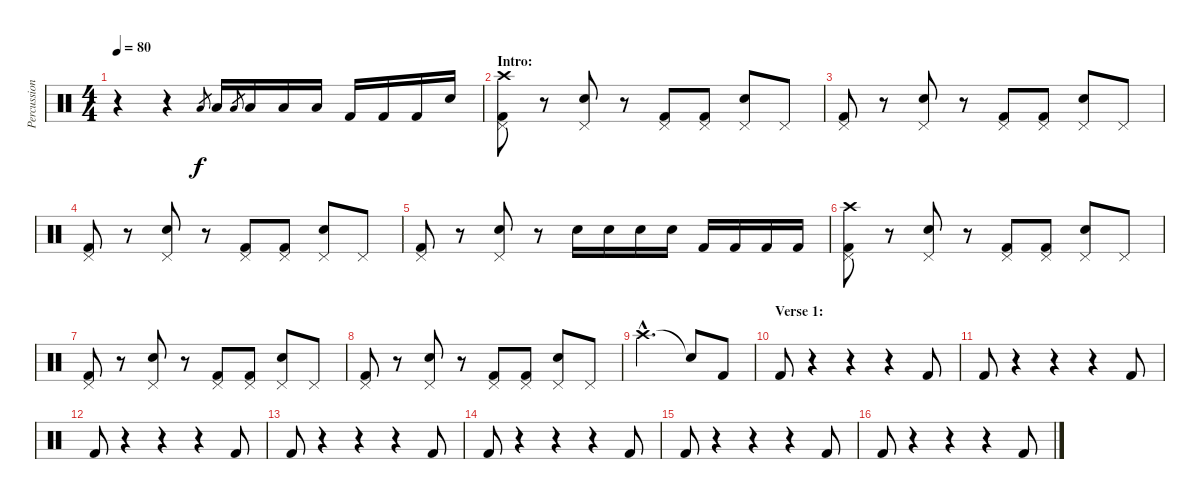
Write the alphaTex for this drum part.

\track ("Percussion" "Percussion") {instrument percussion}
\staff {score}
\articulation defaults
\ts (4 4)
\tempo 80
\clef neutral
\ks c
r.4{dy f} r.4 "Low Tom (hit)".8{gr} "Low Tom (hit)".16 "Low Tom (hit)".8{gr} "Low Tom (hit)".16 "Low Tom (hit)".16 "Low Tom (hit)".16 "Kick (hit) 2".16 "Kick (hit) 2".16 "Kick (hit) 2".16 "Snare (hit) 2".16 |
\section ("" "Intro:")
("Pedal Hi-Hat (hit)" "Crash high (hit)" "Kick (hit) 2").8 r.8 ("Pedal Hi-Hat (hit)" "Snare (hit) 2").8 r.8 ("Pedal Hi-Hat (hit)" "Kick (hit) 2").8 ("Pedal Hi-Hat (hit)" "Kick (hit) 2").8 ("Pedal Hi-Hat (hit)" "Snare (hit) 2").8 "Pedal Hi-Hat (hit)".8 |
("Pedal Hi-Hat (hit)" "Kick (hit) 2").8 r.8 ("Pedal Hi-Hat (hit)" "Snare (hit) 2").8 r.8 ("Pedal Hi-Hat (hit)" "Kick (hit) 2").8 ("Pedal Hi-Hat (hit)" "Kick (hit) 2").8 ("Pedal Hi-Hat (hit)" "Snare (hit) 2").8 "Pedal Hi-Hat (hit)".8 |
("Pedal Hi-Hat (hit)" "Kick (hit) 2").8 r.8 ("Pedal Hi-Hat (hit)" "Snare (hit) 2").8 r.8 ("Pedal Hi-Hat (hit)" "Kick (hit) 2").8 ("Pedal Hi-Hat (hit)" "Kick (hit) 2").8 ("Pedal Hi-Hat (hit)" "Snare (hit) 2").8 "Pedal Hi-Hat (hit)".8 |
("Pedal Hi-Hat (hit)" "Kick (hit) 2").8 r.8 ("Pedal Hi-Hat (hit)" "Snare (hit) 2").8 r.8 "Snare (hit) 2".16 "Snare (hit) 2".16 "Snare (hit) 2".16 "Snare (hit) 2".16 "Kick (hit) 2".16 "Kick (hit) 2".16 "Kick (hit) 2".16 "Kick (hit) 2".16 |
("Pedal Hi-Hat (hit)" "Crash high (hit)" "Kick (hit) 2").8 r.8 ("Pedal Hi-Hat (hit)" "Snare (hit) 2").8 r.8 ("Pedal Hi-Hat (hit)" "Kick (hit) 2").8 ("Pedal Hi-Hat (hit)" "Kick (hit) 2").8 ("Pedal Hi-Hat (hit)" "Snare (hit) 2").8 "Pedal Hi-Hat (hit)".8 |
("Pedal Hi-Hat (hit)" "Kick (hit) 2").8 r.8 ("Pedal Hi-Hat (hit)" "Snare (hit) 2").8 r.8 ("Pedal Hi-Hat (hit)" "Kick (hit) 2").8 ("Pedal Hi-Hat (hit)" "Kick (hit) 2").8 ("Pedal Hi-Hat (hit)" "Snare (hit) 2").8 "Pedal Hi-Hat (hit)".8 |
("Pedal Hi-Hat (hit)" "Kick (hit) 2").8 r.8 ("Pedal Hi-Hat (hit)" "Snare (hit) 2").8 r.8 ("Pedal Hi-Hat (hit)" "Kick (hit) 2").8 ("Pedal Hi-Hat (hit)" "Kick (hit) 2").8 ("Pedal Hi-Hat (hit)" "Snare (hit) 2").8 "Pedal Hi-Hat (hit)".8 |
"Crash high (hit)"{hac}.2{d} "Snare (hit)"{t}.8 "Kick (hit) 2".8 |
\section ("" "Verse 1:")
"Kick (hit) 2".8 r.4 r.4 r.4 "Kick (hit) 2".8 |
"Kick (hit) 2".8 r.4 r.4 r.4 "Kick (hit) 2".8 |
"Kick (hit) 2".8 r.4 r.4 r.4 "Kick (hit) 2".8 |
"Kick (hit) 2".8 r.4 r.4 r.4 "Kick (hit) 2".8 |
"Kick (hit) 2".8 r.4 r.4 r.4 "Kick (hit) 2".8 |
"Kick (hit) 2".8 r.4 r.4 r.4 "Kick (hit) 2".8 |
"Kick (hit) 2".8 r.4 r.4 r.4 "Kick (hit) 2".8
